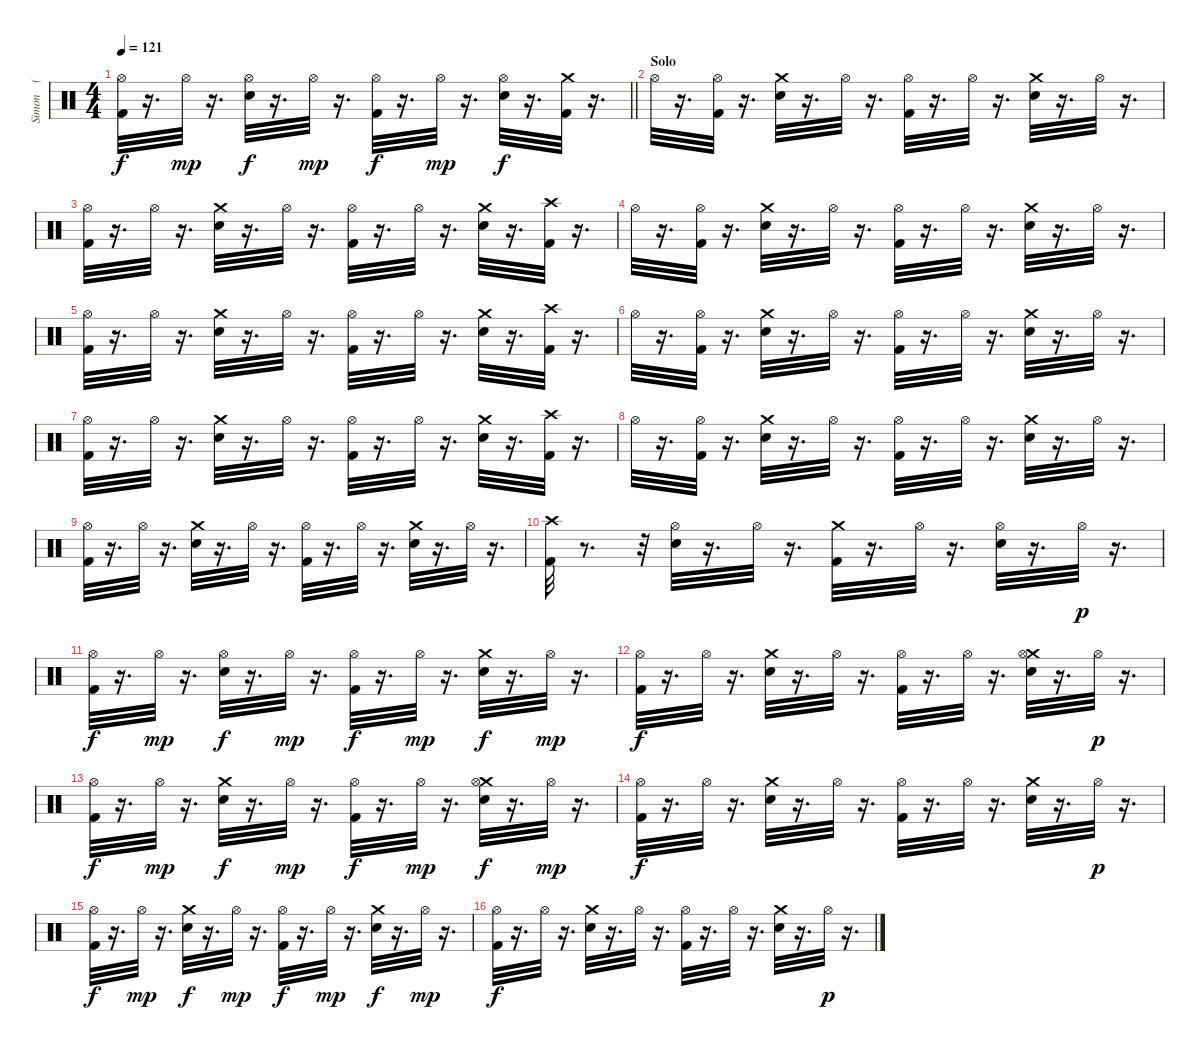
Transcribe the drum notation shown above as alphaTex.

\track ("Simon    (Drums)" "Simon    (") {instrument percussion}
\staff {score}
\articulation defaults
\ts (4 4)
\tempo 121
\clef neutral
\barLineRight lightlight
\ks c
("Hi-Hat (open)" "Kick (hit) 2").32{dy f} r.16{d} "Hi-Hat (open)".32{dy mp} r.16{d} ("Hi-Hat (open)" "Electric Snare (hit)").32{dy f} r.16{d} "Hi-Hat (open)".32{dy mp} r.16{d} ("Hi-Hat (open)" "Kick (hit) 2").32{dy f} r.16{d} "Hi-Hat (open)".32{dy mp} r.16{d} ("Hi-Hat (open)" "Electric Snare (hit)").32{dy f} r.16{d} ("Kick (hit) 2" "Crash medium (hit)").32 r.16{d} |
\section ("" "Solo")
"Hi-Hat (open)".32 r.16{d} ("Hi-Hat (open)" "Kick (hit) 2").32 r.16{d} ("Crash medium (hit)" "Electric Snare (hit)").32 r.16{d} "Hi-Hat (open)".32 r.16{d} ("Hi-Hat (open)" "Kick (hit) 2").32 r.16{d} "Hi-Hat (open)".32 r.16{d} ("Crash medium (hit)" "Electric Snare (hit)").32 r.16{d} "Hi-Hat (open)".32 r.16{d} |
("Kick (hit) 2" "Hi-Hat (open)").32 r.16{d} "Hi-Hat (open)".32 r.16{d} ("Crash medium (hit)" "Electric Snare (hit)").32 r.16{d} "Hi-Hat (open)".32 r.16{d} ("Hi-Hat (open)" "Kick (hit) 2").32 r.16{d} "Hi-Hat (open)".32 r.16{d} ("Crash medium (hit)" "Electric Snare (hit)").32 r.16{d} ("Crash high (hit)" "Kick (hit) 2").32 r.16{d} |
"Hi-Hat (open)".32 r.16{d} ("Hi-Hat (open)" "Kick (hit) 2").32 r.16{d} ("Crash medium (hit)" "Electric Snare (hit)").32 r.16{d} "Hi-Hat (open)".32 r.16{d} ("Hi-Hat (open)" "Kick (hit) 2").32 r.16{d} "Hi-Hat (open)".32 r.16{d} ("Crash medium (hit)" "Electric Snare (hit)").32 r.16{d} "Hi-Hat (open)".32 r.16{d} |
("Hi-Hat (open)" "Kick (hit) 2").32 r.16{d} "Hi-Hat (open)".32 r.16{d} ("Crash medium (hit)" "Electric Snare (hit)").32 r.16{d} "Hi-Hat (open)".32 r.16{d} ("Hi-Hat (open)" "Kick (hit) 2").32 r.16{d} "Hi-Hat (open)".32 r.16{d} ("Crash medium (hit)" "Electric Snare (hit)").32 r.16{d} ("Crash high (hit)" "Kick (hit) 2").32 r.16{d} |
"Hi-Hat (open)".32 r.16{d} ("Hi-Hat (open)" "Kick (hit) 2").32 r.16{d} ("Crash medium (hit)" "Electric Snare (hit)").32 r.16{d} "Hi-Hat (open)".32 r.16{d} ("Hi-Hat (open)" "Kick (hit) 2").32 r.16{d} "Hi-Hat (open)".32 r.16{d} ("Crash medium (hit)" "Electric Snare (hit)").32 r.16{d} "Hi-Hat (open)".32 r.16{d} |
("Kick (hit) 2" "Hi-Hat (open)").32 r.16{d} "Hi-Hat (open)".32 r.16{d} ("Crash medium (hit)" "Electric Snare (hit)").32 r.16{d} "Hi-Hat (open)".32 r.16{d} ("Hi-Hat (open)" "Kick (hit) 2").32 r.16{d} "Hi-Hat (open)".32 r.16{d} ("Crash medium (hit)" "Electric Snare (hit)").32 r.16{d} ("Crash high (hit)" "Kick (hit) 2").32 r.16{d} |
"Hi-Hat (open)".32 r.16{d} ("Hi-Hat (open)" "Kick (hit) 2").32 r.16{d} ("Crash medium (hit)" "Electric Snare (hit)").32 r.16{d} "Hi-Hat (open)".32 r.16{d} ("Hi-Hat (open)" "Kick (hit) 2").32 r.16{d} "Hi-Hat (open)".32 r.16{d} ("Crash medium (hit)" "Electric Snare (hit)").32 r.16{d} "Hi-Hat (open)".32 r.16{d} |
("Hi-Hat (open)" "Kick (hit) 2").32 r.16{d} "Hi-Hat (open)".32 r.16{d} ("Crash medium (hit)" "Electric Snare (hit)").32 r.16{d} "Hi-Hat (open)".32 r.16{d} ("Hi-Hat (open)" "Kick (hit) 2").32 r.16{d} "Hi-Hat (open)".32 r.16{d} ("Crash medium (hit)" "Electric Snare (hit)").32 r.16{d} "Hi-Hat (open)".32 r.16{d} |
("Kick (hit) 2" "Crash high (hit)").32 r.8{d} r.32 ("Electric Snare (hit)" "Hi-Hat (open)").32 r.16{d} "Hi-Hat (open)".32 r.16{d} ("Kick (hit) 2" "Crash medium (hit)").32 r.16{d} "Hi-Hat (open)".32 r.16{d} ("Hi-Hat (open)" "Electric Snare (hit)").32 r.16{d} "Hi-Hat (open)".32{dy p} r.16{d} |
("Hi-Hat (open)" "Kick (hit) 2").32{dy f} r.16{d} "Hi-Hat (open)".32{dy mp} r.16{d} ("Hi-Hat (open)" "Electric Snare (hit)").32{dy f} r.16{d} "Hi-Hat (open)".32{dy mp} r.16{d} ("Hi-Hat (open)" "Kick (hit) 2").32{dy f} r.16{d} "Hi-Hat (open)".32{dy mp} r.16{d} ("Crash medium (hit)" "Electric Snare (hit)").32{dy f} r.16{d} "Hi-Hat (open)".32{dy mp} r.16{d} |
("Hi-Hat (open)" "Kick (hit) 2").32{dy f} r.16{d} "Hi-Hat (open)".32 r.16{d} ("Crash medium (hit)" "Electric Snare (hit)").32 r.16{d} "Hi-Hat (open)".32 r.16{d} ("Hi-Hat (open)" "Kick (hit) 2").32 r.16{d} "Hi-Hat (open)".32 r.16{d} ("Crash medium (hit)" "Hi-Hat (open)" "Electric Snare (hit)").32 r.16{d} "Hi-Hat (open)".32{dy p} r.16{d} |
("Hi-Hat (open)" "Kick (hit) 2").32{dy f} r.16{d} "Hi-Hat (open)".32{dy mp} r.16{d} ("Crash medium (hit)" "Electric Snare (hit)").32{dy f} r.16{d} "Hi-Hat (open)".32{dy mp} r.16{d} ("Hi-Hat (open)" "Kick (hit) 2").32{dy f} r.16{d} "Hi-Hat (open)".32{dy mp} r.16{d} ("Crash medium (hit)" "Hi-Hat (open)" "Electric Snare (hit)").32{dy f} r.16{d} "Hi-Hat (open)".32{dy mp} r.16{d} |
("Hi-Hat (open)" "Kick (hit) 2").32{dy f} r.16{d} "Hi-Hat (open)".32 r.16{d} ("Crash medium (hit)" "Electric Snare (hit)").32 r.16{d} "Hi-Hat (open)".32 r.16{d} ("Hi-Hat (open)" "Kick (hit) 2").32 r.16{d} "Hi-Hat (open)".32 r.16{d} ("Crash medium (hit)" "Electric Snare (hit)").32 r.16{d} "Hi-Hat (open)".32{dy p} r.16{d} |
("Hi-Hat (open)" "Kick (hit) 2").32{dy f} r.16{d} "Hi-Hat (open)".32{dy mp} r.16{d} ("Crash medium (hit)" "Electric Snare (hit)").32{dy f} r.16{d} "Hi-Hat (open)".32{dy mp} r.16{d} ("Hi-Hat (open)" "Kick (hit) 2").32{dy f} r.16{d} "Hi-Hat (open)".32{dy mp} r.16{d} ("Crash medium (hit)" "Electric Snare (hit)").32{dy f} r.16{d} "Hi-Hat (open)".32{dy mp} r.16{d} |
("Hi-Hat (open)" "Kick (hit) 2").32{dy f} r.16{d} "Hi-Hat (open)".32 r.16{d} ("Crash medium (hit)" "Electric Snare (hit)").32 r.16{d} "Hi-Hat (open)".32 r.16{d} ("Hi-Hat (open)" "Kick (hit) 2").32 r.16{d} "Hi-Hat (open)".32 r.16{d} ("Crash medium (hit)" "Electric Snare (hit)").32 r.16{d} "Hi-Hat (open)".32{dy p} r.16{d}
